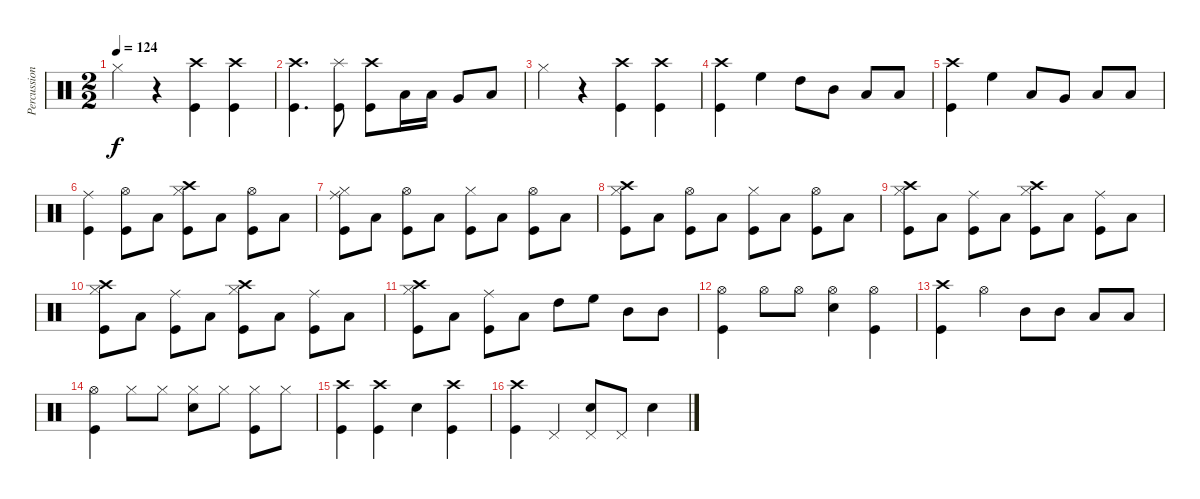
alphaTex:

\track ("Percussions" "Percussion") {instrument percussion}
\staff {score}
\articulation defaults
\ts (2 2)
\tempo 124
\clef neutral
\ks c "Hi-Hat (closed)".4{dy f}
r.4 ("Crash high (hit)" "Kick (hit)").4 ("Crash high (hit)" "Kick (hit)").4 |
("Crash high (hit)" "Kick (hit)").4{d} ("Splash (hit)" "Kick (hit)").8 ("Crash high (hit)" "Kick (hit)").8 "Low Floor Tom (hit)".16 "Low Floor Tom (hit)".16 "Very Low Tom (hit)".8 "Low Floor Tom (hit)".8 |
"Hi-Hat (closed)".4 r.4 ("Crash high (hit)" "Kick (hit)").4 ("Crash high (hit)" "Kick (hit)").4 |
("Crash high (hit)" "Kick (hit)").4 "High Floor Tom (hit)".4 "High Tom (hit)".8 "Mid Tom (hit)".8 "Low Tom (hit)".8 "Low Tom (hit)".8 |
("Crash high (hit)" "Kick (hit)").4 "High Floor Tom (hit)".4 "Low Tom (hit)".8 "Very Low Tom (hit)".8 "Low Floor Tom (hit)".8 "Low Floor Tom (hit)".8 |
("Ride (middle)" "Kick (hit)").4 ("Hi-Hat (open)" "Kick (hit)").8 "Low Floor Tom (hit)".8 ("Crash high (hit)" "Hi-Hat (closed)" "Kick (hit)").8 "Low Floor Tom (hit)".8 ("Hi-Hat (open)" "Kick (hit)").8 "Low Floor Tom (hit)".8 |
("Ride (middle)" "Hi-Hat (closed)" "Kick (hit)").8 "Low Floor Tom (hit)".8 ("Hi-Hat (open)" "Kick (hit)").8 "Low Floor Tom (hit)".8 ("Hi-Hat (closed)" "Kick (hit)").8 "Low Floor Tom (hit)".8 ("Hi-Hat (open)" "Kick (hit)").8 "Low Floor Tom (hit)".8 |
("Crash high (hit)" "Hi-Hat (closed)" "Kick (hit)").8 "Low Floor Tom (hit)".8 ("Hi-Hat (open)" "Kick (hit)").8 "Low Floor Tom (hit)".8 ("Hi-Hat (closed)" "Kick (hit)").8 "Low Floor Tom (hit)".8 ("Hi-Hat (open)" "Kick (hit)").8 "Low Floor Tom (hit)".8 |
("Crash high (hit)" "Hi-Hat (closed)" "Kick (hit)").8 "Low Floor Tom (hit)".8 ("Ride (middle)" "Kick (hit)").8 "Low Floor Tom (hit)".8 ("Crash high (hit)" "Hi-Hat (closed)" "Kick (hit)").8 "Low Floor Tom (hit)".8 ("Ride (middle)" "Kick (hit)").8 "Low Floor Tom (hit)".8 |
("Crash high (hit)" "Hi-Hat (closed)" "Kick (hit)").8 "Low Floor Tom (hit)".8 ("Ride (middle)" "Kick (hit)").8 "Low Floor Tom (hit)".8 ("Crash high (hit)" "Hi-Hat (closed)" "Kick (hit)").8 "Low Floor Tom (hit)".8 ("Ride (middle)" "Kick (hit)").8 "Low Floor Tom (hit)".8 |
("Crash high (hit)" "Hi-Hat (closed)" "Kick (hit)").8 "Low Floor Tom (hit)".8 ("Ride (middle)" "Kick (hit)").8 "Low Floor Tom (hit)".8 "High Tom (hit)".8 "High Floor Tom (hit)".8 "Mid Tom (hit)".8 "Mid Tom (hit)".8 |
("Hi-Hat (open)" "Kick (hit)").4 "Hi-Hat (open)".8 "Hi-Hat (open)".8 ("Hi-Hat (open)" "Snare (hit) 2").4 ("Hi-Hat (open)" "Kick (hit)").4 |
("Crash high (hit)" "Kick (hit)").4 "Hi-Hat (open)".4 "Mid Tom (hit)".8 "Mid Tom (hit)".8 "Low Tom (hit)".8 "Low Tom (hit)".8 |
("Hi-Hat (open)" "Kick (hit)").4 "Hi-Hat (closed)".8 "Hi-Hat (closed)".8 ("Hi-Hat (closed)" "Snare (hit) 2").8 "Hi-Hat (closed)".8 ("Hi-Hat (closed)" "Kick (hit)").8 "Hi-Hat (closed)".8 |
("Crash high (hit)" "Kick (hit)").4 ("Crash high (hit)" "Kick (hit)").4 "Snare (hit) 2".4 ("Crash high (hit)" "Kick (hit)").4 |
("Crash high (hit)" "Kick (hit)").4 "Pedal Hi-Hat (hit)".4 ("Pedal Hi-Hat (hit)" "Snare (hit) 2").8 "Pedal Hi-Hat (hit)".8 "Snare (hit)".4
